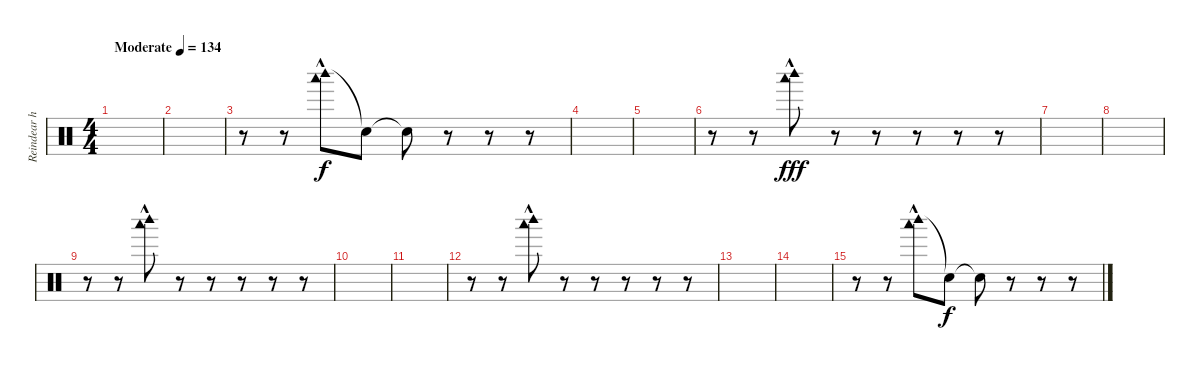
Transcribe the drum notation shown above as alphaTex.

\track ("Reindear horn" "Reindear h") {instrument percussion}
\staff {score}
\articulation defaults
\ts (4 4)
\tempo (134 "Moderate")
\clef neutral
\ks c
|
|
r.8 r.8 ("Woodblock high (hit)" "Woodblock low (hit)"{hac}).8 "Snare (hit)"{t}.8{dy f} "Snare (hit)"{t}.8 r.8 r.8 r.8 |
|
|
r.8 r.8 ("Woodblock high (hit)" "Woodblock low (hit)"{hac}).8{dy fff} r.8 r.8 r.8 r.8 r.8 |
|
|
r.8 r.8 ("Woodblock high (hit)" "Woodblock low (hit)"{hac}).8 r.8 r.8 r.8 r.8 r.8 |
|
|
r.8 r.8 ("Woodblock high (hit)" "Woodblock low (hit)"{hac}).8 r.8 r.8 r.8 r.8 r.8 |
|
|
r.8 r.8 ("Woodblock high (hit)" "Woodblock low (hit)"{hac}).8 "Snare (hit)"{t}.8{dy f} "Snare (hit)"{t}.8 r.8 r.8 r.8
